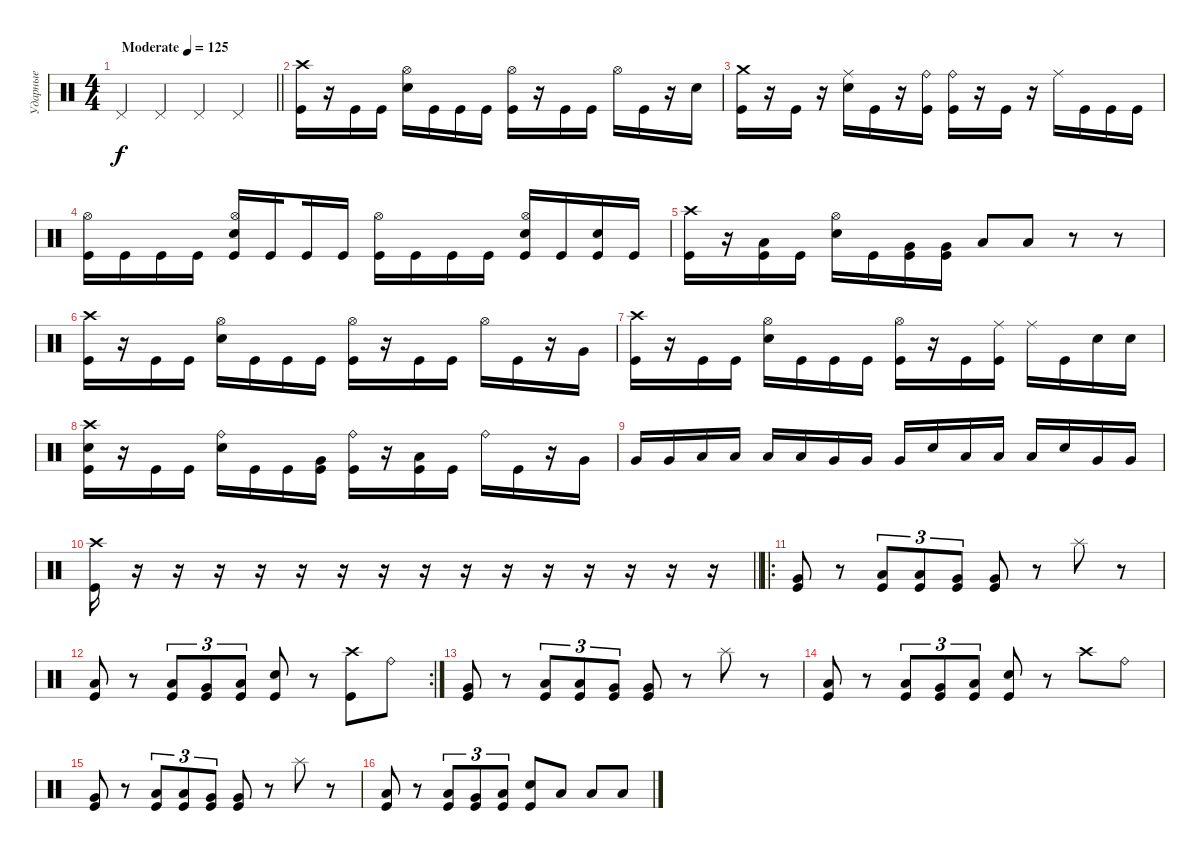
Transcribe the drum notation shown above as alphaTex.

\track ("Ударные" "Ударные") {instrument percussion}
\staff {score}
\articulation defaults
\ts (4 4)
\tempo (125 "Moderate")
\clef neutral
\barLineRight lightlight
\ks c "Pedal Hi-Hat (hit)".4{dy f} "Pedal Hi-Hat (hit)".4 "Pedal Hi-Hat (hit)".4 "Pedal Hi-Hat (hit)".4
|
\section ("" " ")
("Crash high (hit)" "Kick (hit)").16 r.16 "Kick (hit)".16 "Kick (hit)".16 ("Hi-Hat (open)" "Electric Snare (hit)").16 "Kick (hit)".16 "Kick (hit)".16 "Kick (hit)".16 ("Hi-Hat (open)" "Kick (hit)").16 r.16 "Kick (hit)".16 "Kick (hit)".16 "Hi-Hat (open)".16 "Kick (hit)".16 r.16 "Electric Snare (hit)".16 |
("Crash medium (hit)" "Kick (hit)").16 r.16 "Kick (hit)".16 r.16 ("Ride (middle)" "Electric Snare (hit)").16 "Kick (hit)".16 r.16 ("Ride (bell)" "Kick (hit)").16 ("Ride (bell)" "Kick (hit)").16 r.16 "Kick (hit)".16 r.16 "Ride (middle)".16 "Kick (hit)".16 "Kick (hit)".16 "Kick (hit)".16 |
("Hi-Hat (open)" "Kick (hit)").16 "Kick (hit)".16 "Kick (hit)".16 "Kick (hit)".16 ("Hi-Hat (open)" "Electric Snare (hit)" "Kick (hit)").16 "Kick (hit)".16{beam splitsecondary} "Kick (hit)".16 "Kick (hit)".16 ("Hi-Hat (open)" "Kick (hit)").16 "Kick (hit)".16 "Kick (hit)".16 "Kick (hit)".16 ("Hi-Hat (open)" "Electric Snare (hit)" "Kick (hit)").16 "Kick (hit)".16 ("Electric Snare (hit)" "Kick (hit)").16 "Kick (hit)".16 |
("Crash high (hit)" "Kick (hit)").16 r.16 ("Low Tom (hit)" "Kick (hit)").16 "Kick (hit)".16 ("Hi-Hat (open)" "Electric Snare (hit)").16 "Kick (hit)".16 ("Very Low Tom (hit)" "Kick (hit)").16 ("Very Low Tom (hit)" "Kick (hit)").16 "Low Floor Tom (hit)".8 "Low Floor Tom (hit)".8 r.8 r.8 |
("Crash high (hit)" "Kick (hit)").16 r.16 "Kick (hit)".16 "Kick (hit)".16 ("Hi-Hat (open)" "Electric Snare (hit)").16 "Kick (hit)".16 "Kick (hit)".16 "Kick (hit)".16 ("Hi-Hat (open)" "Kick (hit)").16 r.16 "Kick (hit)".16 "Kick (hit)".16 "Hi-Hat (open)".16 "Kick (hit)".16 r.16 "Very Low Tom (hit)".16 |
("Crash high (hit)" "Kick (hit)").16 r.16 "Kick (hit)".16 "Kick (hit)".16 ("Hi-Hat (open)" "Electric Snare (hit)").16 "Kick (hit)".16 "Kick (hit)".16 "Kick (hit)".16 ("Hi-Hat (open)" "Kick (hit)").16 r.16 "Kick (hit)".16 ("Ride (middle)" "Kick (hit)").16 "Ride (middle)".16 "Kick (hit)".16 "Electric Snare (hit)".16 "Electric Snare (hit)".16 |
("Crash high (hit)" "Electric Snare (hit)" "Kick (hit)").16 r.16 "Kick (hit)".16 "Kick (hit)".16 ("Ride (bell)" "Electric Snare (hit)").16 "Kick (hit)".16 "Kick (hit)".16 ("Very Low Tom (hit)" "Kick (hit)").16 ("Ride (bell)" "Kick (hit)").16 r.16 ("Low Tom (hit)" "Kick (hit)").16 "Kick (hit)".16 "Ride (bell)".16 "Kick (hit)".16 r.16 "Very Low Tom (hit)".16 |
"Very Low Tom (hit)".16 "Very Low Tom (hit)".16 "Low Floor Tom (hit)".16 "Low Floor Tom (hit)".16 "Low Tom (hit)".16 "Low Tom (hit)".16 "Very Low Tom (hit)".16 "Very Low Tom (hit)".16 "Very Low Tom (hit)".16 "Electric Snare (hit)".16 "Low Floor Tom (hit)".16 "Low Floor Tom (hit)".16 "Low Tom (hit)".16 "Electric Snare (hit)".16 "Very Low Tom (hit)".16 "Very Low Tom (hit)".16 |
\barLineRight lightlight
("Crash high (hit)" "Kick (hit)").16 r.16 r.16 r.16 r.16 r.16 r.16 r.16 r.16 r.16 r.16 r.16 r.16 r.16 r.16 r.16 |
\ro
\section ("" " ")
("Very Low Tom (hit)" "Kick (hit)").8 r.8 ("Low Tom (hit)" "Kick (hit)").8{tu (3 2)} ("Low Tom (hit)" "Kick (hit)").8{tu (3 2)} ("Very Low Tom (hit)" "Kick (hit)").8{tu (3 2)} ("Very Low Tom (hit)" "Kick (hit)").8 r.8 "Splash (hit)".8 r.8 |
\rc 2
("Low Tom (hit)" "Kick (hit)").8 r.8 ("Low Tom (hit)" "Kick (hit)").8{tu (3 2)} ("Very Low Tom (hit)" "Kick (hit)").8{tu (3 2)} ("Low Floor Tom (hit)" "Kick (hit)").8{tu (3 2)} ("Electric Snare (hit)" "Kick (hit)").8 r.8 ("Crash high (hit)" "Kick (hit)").8 "Ride (bell)".8 |
("Very Low Tom (hit)" "Kick (hit)").8 r.8 ("Low Tom (hit)" "Kick (hit)").8{tu (3 2)} ("Low Tom (hit)" "Kick (hit)").8{tu (3 2)} ("Very Low Tom (hit)" "Kick (hit)").8{tu (3 2)} ("Very Low Tom (hit)" "Kick (hit)").8 r.8 "Splash (hit)".8 r.8 |
("Low Tom (hit)" "Kick (hit)").8 r.8 ("Low Tom (hit)" "Kick (hit)").8{tu (3 2)} ("Very Low Tom (hit)" "Kick (hit)").8{tu (3 2)} ("Low Floor Tom (hit)" "Kick (hit)").8{tu (3 2)} ("Electric Snare (hit)" "Kick (hit)").8 r.8 "Crash high (hit)".8 "Ride (bell)".8 |
("Very Low Tom (hit)" "Kick (hit)").8 r.8 ("Low Tom (hit)" "Kick (hit)").8{tu (3 2)} ("Low Tom (hit)" "Kick (hit)").8{tu (3 2)} ("Very Low Tom (hit)" "Kick (hit)").8{tu (3 2)} ("Very Low Tom (hit)" "Kick (hit)").8 r.8 "Splash (hit)".8 r.8 |
("Low Tom (hit)" "Kick (hit)").8 r.8 ("Low Tom (hit)" "Kick (hit)").8{tu (3 2)} ("Very Low Tom (hit)" "Kick (hit)").8{tu (3 2)} ("Low Floor Tom (hit)" "Kick (hit)").8{tu (3 2)} ("Electric Snare (hit)" "Kick (hit)").8 "Low Tom (hit)".8 "Low Tom (hit)".8 "Low Tom (hit)".8
